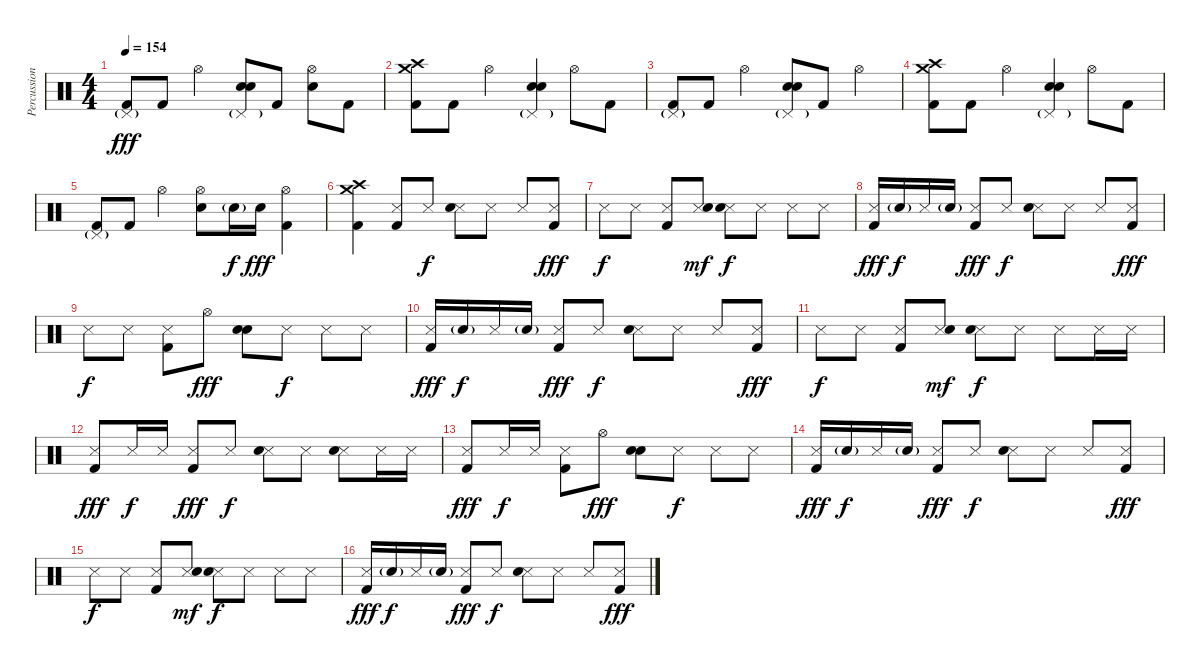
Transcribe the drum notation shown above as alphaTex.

\track ("Percussion" "Percussion") {instrument percussion}
\staff {score}
\articulation defaults
\ts (4 4)
\tempo 154
\clef neutral
\ks c
("Pedal Hi-Hat (hit)"{g} "Kick (hit) 2").8{dy fff} "Kick (hit) 2".8 "Hi-Hat (open)".4 ("Pedal Hi-Hat (hit)"{g} "Electric Snare (hit)" "Electric Snare (hit)").8{bd 240} "Kick (hit) 2".8 ("Hi-Hat (open)" "Electric Snare (hit)").8 "Kick (hit) 2".8 |
("Crash high (hit)" "Crash medium (hit)" "Kick (hit) 2").8 "Kick (hit) 2".8 "Hi-Hat (open)".4 ("Pedal Hi-Hat (hit)"{g} "Electric Snare (hit)" "Electric Snare (hit)").4{bd 240} "Hi-Hat (open)".8 "Kick (hit) 2".8 |
("Pedal Hi-Hat (hit)"{g} "Kick (hit) 2").8 "Kick (hit) 2".8 "Hi-Hat (open)".4 ("Pedal Hi-Hat (hit)"{g} "Electric Snare (hit)" "Electric Snare (hit)").8{bd 240} "Kick (hit) 2".8 "Hi-Hat (open)".4 |
("Crash high (hit)" "Crash medium (hit)" "Kick (hit) 2").8 "Kick (hit) 2".8 "Hi-Hat (open)".4 ("Pedal Hi-Hat (hit)"{g} "Electric Snare (hit)" "Electric Snare (hit)").4{bd 240} "Hi-Hat (open)".8 "Kick (hit) 2".8 |
("Pedal Hi-Hat (hit)"{g} "Kick (hit) 2").8 "Kick (hit) 2".8 "Hi-Hat (open)".4 ("Hi-Hat (open)" "Electric Snare (hit)").8 "Electric Snare (hit)"{g}.16{dy f} "Electric Snare (hit)".16{dy fff} ("Hi-Hat (open)" "Kick (hit) 2").4 |
("Crash high (hit)" "Crash medium (hit)" "Kick (hit) 2").4 ("Snare (side stick) 3" "Kick (hit) 2").8 "Snare (side stick) 3".8{dy f} ("Snare (side stick) 3" "Electric Snare (hit)").8 "Snare (side stick) 3".8 "Snare (side stick) 3".8 ("Snare (side stick) 3" "Kick (hit) 2").8{dy fff} |
"Snare (side stick) 3".8{dy f} "Snare (side stick) 3".8 ("Snare (side stick) 3" "Kick (hit) 2").8 ("Snare (side stick) 3" "Snare (hit) 2").8{dy mf} ("Snare (side stick) 3" "Electric Snare (hit)").8{dy f} "Snare (side stick) 3".8 "Snare (side stick) 3".8 "Snare (side stick) 3".8 |
("Snare (side stick) 3" "Kick (hit) 2").16{dy fff} "Snare (hit) 2"{g}.16{dy f} "Snare (side stick) 3".16 "Snare (hit) 2"{g}.16 ("Snare (side stick) 3" "Kick (hit) 2").8{dy fff} "Snare (side stick) 3".8{dy f} ("Snare (side stick) 3" "Electric Snare (hit)").8 "Snare (side stick) 3".8 "Snare (side stick) 3".8 ("Snare (side stick) 3" "Kick (hit) 2").8{dy fff} |
"Snare (side stick) 3".8{dy f} "Snare (side stick) 3".8 ("Snare (side stick) 3" "Kick (hit) 2").8 "Hi-Hat (open)".8{dy fff} ("Snare (hit) 2" "Snare (hit) 2").8{bd 30} "Snare (side stick) 3".8{dy f} "Snare (side stick) 3".8 "Snare (side stick) 3".8 |
("Snare (side stick) 3" "Kick (hit) 2").16{dy fff} "Snare (hit) 2"{g}.16{dy f} "Snare (side stick) 3".16 "Snare (hit) 2"{g}.16 ("Snare (side stick) 3" "Kick (hit) 2").8{dy fff} "Snare (side stick) 3".8{dy f} ("Snare (side stick) 3" "Electric Snare (hit)").8 "Snare (side stick) 3".8 "Snare (side stick) 3".8 ("Snare (side stick) 3" "Kick (hit) 2").8{dy fff} |
"Snare (side stick) 3".8{dy f} "Snare (side stick) 3".8 ("Snare (side stick) 3" "Kick (hit) 2").8 ("Snare (side stick) 3" "Snare (hit) 2").8{dy mf} ("Snare (side stick) 3" "Electric Snare (hit)").8{dy f} "Snare (side stick) 3".8 "Snare (side stick) 3".8 "Snare (side stick) 3".16 "Snare (side stick) 3".16 |
("Snare (side stick) 3" "Kick (hit) 2").8{dy fff} "Snare (side stick) 3".16{dy f} "Snare (side stick) 3".16 ("Snare (side stick) 3" "Kick (hit) 2").8{dy fff} "Snare (side stick) 3".8{dy f} ("Snare (side stick) 3" "Electric Snare (hit)").8 "Snare (side stick) 3".8 ("Snare (side stick) 3" "Electric Snare (hit)").8 "Snare (side stick) 3".16 "Snare (side stick) 3".16 |
("Snare (side stick) 3" "Kick (hit) 2").8{dy fff} "Snare (side stick) 3".16{dy f} "Snare (side stick) 3".16 ("Snare (side stick) 3" "Kick (hit) 2").8 "Hi-Hat (open)".8{dy fff} ("Snare (hit) 2" "Snare (hit) 2").8{bd 30} "Snare (side stick) 3".8{dy f} "Snare (side stick) 3".8 "Snare (side stick) 3".8 |
("Snare (side stick) 3" "Kick (hit) 2").16{dy fff} "Snare (hit) 2"{g}.16{dy f} "Snare (side stick) 3".16 "Snare (hit) 2"{g}.16 ("Snare (side stick) 3" "Kick (hit) 2").8{dy fff} "Snare (side stick) 3".8{dy f} ("Snare (side stick) 3" "Electric Snare (hit)").8 "Snare (side stick) 3".8 "Snare (side stick) 3".8 ("Snare (side stick) 3" "Kick (hit) 2").8{dy fff} |
"Snare (side stick) 3".8{dy f} "Snare (side stick) 3".8 ("Snare (side stick) 3" "Kick (hit) 2").8 ("Snare (side stick) 3" "Snare (hit) 2").8{dy mf} ("Snare (side stick) 3" "Electric Snare (hit)").8{dy f} "Snare (side stick) 3".8 "Snare (side stick) 3".8 "Snare (side stick) 3".8 |
("Snare (side stick) 3" "Kick (hit) 2").16{dy fff} "Snare (hit) 2"{g}.16{dy f} "Snare (side stick) 3".16 "Snare (hit) 2"{g}.16 ("Snare (side stick) 3" "Kick (hit) 2").8{dy fff} "Snare (side stick) 3".8{dy f} ("Snare (side stick) 3" "Electric Snare (hit)").8 "Snare (side stick) 3".8 "Snare (side stick) 3".8 ("Snare (side stick) 3" "Kick (hit) 2").8{dy fff}
